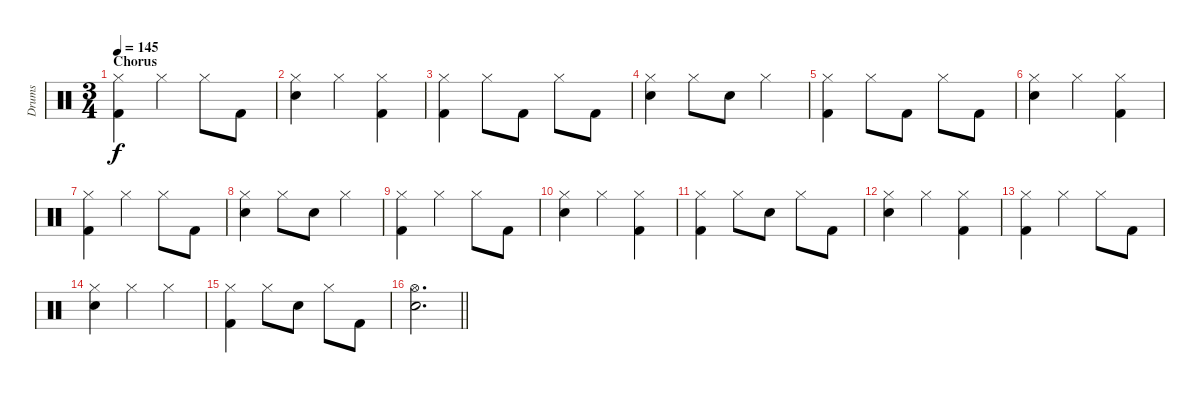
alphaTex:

\track ("Drums" "Drums") {instrument percussion}
\staff {score}
\articulation defaults
\ts (3 4)
\section ("" "Chorus")
\tempo 145
\clef neutral
\ks c
("Hi-Hat (closed)" "Kick (hit) 2").4{dy f} "Hi-Hat (closed)".4 "Hi-Hat (closed)".8 "Kick (hit) 2".8 |
("Hi-Hat (closed)" "Electric Snare (hit)").4 "Hi-Hat (closed)".4 ("Hi-Hat (closed)" "Kick (hit) 2").4 |
("Hi-Hat (closed)" "Kick (hit) 2").4 "Hi-Hat (closed)".8 "Kick (hit) 2".8 "Hi-Hat (closed)".8 "Kick (hit) 2".8 |
("Hi-Hat (closed)" "Electric Snare (hit)").4 "Hi-Hat (closed)".8 "Electric Snare (hit)".8 "Hi-Hat (closed)".4 |
("Hi-Hat (closed)" "Kick (hit) 2").4 "Hi-Hat (closed)".8 "Kick (hit) 2".8 "Hi-Hat (closed)".8 "Kick (hit) 2".8 |
("Hi-Hat (closed)" "Electric Snare (hit)").4 "Hi-Hat (closed)".4 ("Hi-Hat (closed)" "Kick (hit) 2").4 |
("Hi-Hat (closed)" "Kick (hit) 2").4 "Hi-Hat (closed)".4 "Hi-Hat (closed)".8 "Kick (hit) 2".8 |
("Hi-Hat (closed)" "Electric Snare (hit)").4 "Hi-Hat (closed)".8 "Electric Snare (hit)".8 "Hi-Hat (closed)".4 |
("Hi-Hat (closed)" "Kick (hit) 2").4 "Hi-Hat (closed)".4 "Hi-Hat (closed)".8 "Kick (hit) 2".8 |
("Hi-Hat (closed)" "Electric Snare (hit)").4 "Hi-Hat (closed)".4 ("Hi-Hat (closed)" "Kick (hit) 2").4 |
("Hi-Hat (closed)" "Kick (hit) 2").4 "Hi-Hat (closed)".8 "Electric Snare (hit)".8 "Hi-Hat (closed)".8 "Kick (hit) 2".8 |
("Hi-Hat (closed)" "Electric Snare (hit)").4 "Hi-Hat (closed)".4 ("Hi-Hat (closed)" "Kick (hit) 2").4 |
("Hi-Hat (closed)" "Kick (hit) 2").4 "Hi-Hat (closed)".4 "Hi-Hat (closed)".8 "Kick (hit) 2".8 |
("Hi-Hat (closed)" "Electric Snare (hit)").4 "Hi-Hat (closed)".4 "Hi-Hat (closed)".4 |
("Hi-Hat (closed)" "Kick (hit) 2").4 "Hi-Hat (closed)".8 "Electric Snare (hit)".8 "Hi-Hat (closed)".8 "Kick (hit) 2".8 |
\barLineRight lightlight
("Hi-Hat (open)" "Electric Snare (hit)").2{d}
